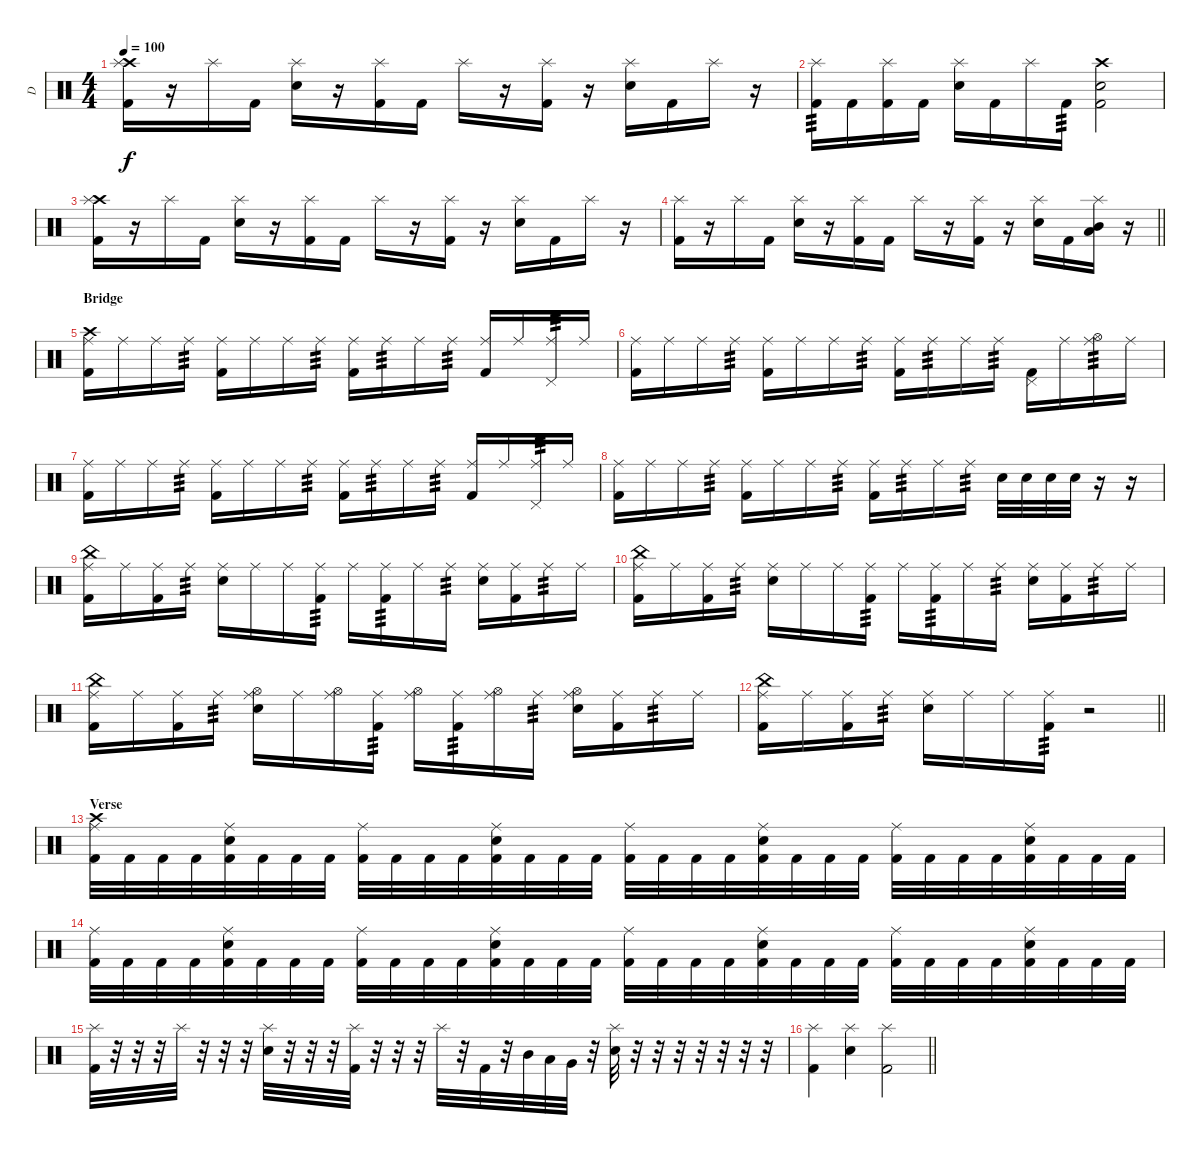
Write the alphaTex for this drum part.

\track ("D" "D") {instrument percussion}
\staff {score}
\articulation defaults
\ts (4 4)
\tempo 100
\clef neutral
\ks c
("Crash high (hit)" "Kick (hit) 2" "Splash (hit)").16{dy f} r.16 "Splash (hit)".16 "Kick (hit) 2".16 ("Electric Snare (hit)" "Splash (hit)").16 r.16 ("Kick (hit) 2" "Splash (hit)").16 "Kick (hit) 2".16 "Splash (hit)".16 r.16 ("Kick (hit) 2" "Splash (hit)").16 r.16 ("Electric Snare (hit)" "Splash (hit)").16 "Kick (hit) 2".16 "Splash (hit)".16 r.16 |
("Kick (hit) 2" "Splash (hit)").16{tp 3} "Kick (hit) 2".16 ("Kick (hit) 2" "Splash (hit)").16 "Kick (hit) 2".16 ("Electric Snare (hit)" "Splash (hit)").16 "Kick (hit) 2".16 "Splash (hit)".16 "Kick (hit) 2".16{tp 3} ("Crash high (hit)" "Electric Snare (hit)" "Kick (hit) 2").2 |
("Crash high (hit)" "Kick (hit) 2" "Splash (hit)").16 r.16 "Splash (hit)".16 "Kick (hit) 2".16 ("Electric Snare (hit)" "Splash (hit)").16 r.16 ("Kick (hit) 2" "Splash (hit)").16 "Kick (hit) 2".16 "Splash (hit)".16 r.16 ("Kick (hit) 2" "Splash (hit)").16 r.16 ("Electric Snare (hit)" "Splash (hit)").16 "Kick (hit) 2".16 "Splash (hit)".16 r.16 |
\barLineRight lightlight
("Kick (hit) 2" "Splash (hit)").16 r.16 "Splash (hit)".16 "Kick (hit) 2".16 ("Electric Snare (hit)" "Splash (hit)").16 r.16 ("Kick (hit) 2" "Splash (hit)").16 "Kick (hit) 2".16 "Splash (hit)".16 r.16 ("Kick (hit) 2" "Splash (hit)").16 r.16 ("Electric Snare (hit)" "Splash (hit)").16 "Kick (hit) 2".16 ("Low Tom (hit)" "Mid Tom (hit)" "Splash (hit)").16 r.16 |
\section ("" "Bridge")
("Crash high (hit)" "Kick (hit) 2" "Ride (middle)").16 "Ride (middle)".16 "Ride (middle)".16 "Ride (middle)".16{tp 3} ("Kick (hit) 2" "Ride (middle)").16 "Ride (middle)".16 "Ride (middle)".16 "Ride (middle)".16{tp 3} ("Kick (hit) 2" "Ride (middle)").16 "Ride (middle)".16{tp 3} "Ride (middle)".16 "Ride (middle)".16{tp 3} ("Kick (hit) 2" "Ride (middle)").16 "Ride (middle)".16 ("Pedal Hi-Hat (hit)" "Ride (middle)").16{tp 3} "Ride (middle)".16 |
("Kick (hit) 2" "Ride (middle)").16 "Ride (middle)".16 "Ride (middle)".16 "Ride (middle)".16{tp 3} ("Kick (hit) 2" "Ride (middle)").16 "Ride (middle)".16 "Ride (middle)".16 "Ride (middle)".16{tp 3} ("Kick (hit) 2" "Ride (middle)").16 "Ride (middle)".16{tp 3} "Ride (middle)".16 "Ride (middle)".16{tp 3} ("Kick (hit) 2" "Pedal Hi-Hat (hit)").16 "Ride (middle)".16 ("Hi-Hat (open)" "Ride (middle)").16{tp 3} "Ride (middle)".16 |
("Kick (hit) 2" "Ride (middle)").16 "Ride (middle)".16 "Ride (middle)".16 "Ride (middle)".16{tp 3} ("Kick (hit) 2" "Ride (middle)").16 "Ride (middle)".16 "Ride (middle)".16 "Ride (middle)".16{tp 3} ("Kick (hit) 2" "Ride (middle)").16 "Ride (middle)".16{tp 3} "Ride (middle)".16 "Ride (middle)".16{tp 3} ("Kick (hit) 2" "Ride (middle)").16 "Ride (middle)".16 ("Pedal Hi-Hat (hit)" "Ride (middle)").16{tp 3} "Ride (middle)".16 |
("Kick (hit) 2" "Ride (middle)").16 "Ride (middle)".16 "Ride (middle)".16 "Ride (middle)".16{tp 3} ("Kick (hit) 2" "Ride (middle)").16 "Ride (middle)".16 "Ride (middle)".16 "Ride (middle)".16{tp 3} ("Kick (hit) 2" "Ride (middle)").16 "Ride (middle)".16{tp 3} "Ride (middle)".16 "Ride (middle)".16{tp 3} "Electric Snare (hit)".32 "Electric Snare (hit)".32 "Electric Snare (hit)".32 "Electric Snare (hit)".32 r.16 r.16 |
("China (hit)" "Kick (hit) 2" "Ride (middle)").16 "Ride (middle)".16 ("Kick (hit) 2" "Ride (middle)").16 "Ride (middle)".16{tp 3} ("Electric Snare (hit)" "Ride (middle)").16 "Ride (middle)".16 "Ride (middle)".16 ("Kick (hit) 2" "Ride (middle)").16{tp 3} "Ride (middle)".16 ("Kick (hit) 2" "Ride (middle)").16{tp 3} "Ride (middle)".16 "Ride (middle)".16{tp 3} ("Electric Snare (hit)" "Ride (middle)").16 ("Kick (hit) 2" "Ride (middle)").16 "Ride (middle)".16{tp 3} "Ride (middle)".16 |
("China (hit)" "Kick (hit) 2" "Ride (middle)").16 "Ride (middle)".16 ("Kick (hit) 2" "Ride (middle)").16 "Ride (middle)".16{tp 3} ("Electric Snare (hit)" "Ride (middle)").16 "Ride (middle)".16 "Ride (middle)".16 ("Kick (hit) 2" "Ride (middle)").16{tp 3} "Ride (middle)".16 ("Kick (hit) 2" "Ride (middle)").16{tp 3} "Ride (middle)".16 "Ride (middle)".16{tp 3} ("Electric Snare (hit)" "Ride (middle)").16 ("Kick (hit) 2" "Ride (middle)").16 "Ride (middle)".16{tp 3} "Ride (middle)".16 |
("China (hit)" "Kick (hit) 2" "Ride (middle)").16 "Ride (middle)".16 ("Kick (hit) 2" "Ride (middle)").16 "Ride (middle)".16{tp 3} ("Electric Snare (hit)" "Ride (middle)" "Hi-Hat (open)").16 "Ride (middle)".16 ("Ride (middle)" "Hi-Hat (open)").16 ("Kick (hit) 2" "Ride (middle)").16{tp 3} ("Ride (middle)" "Hi-Hat (open)").16 ("Kick (hit) 2" "Ride (middle)").16{tp 3} ("Ride (middle)" "Hi-Hat (open)").16 "Ride (middle)".16{tp 3} ("Electric Snare (hit)" "Ride (middle)" "Hi-Hat (open)").16 ("Kick (hit) 2" "Ride (middle)").16 "Ride (middle)".16{tp 3} "Ride (middle)".16 |
\barLineRight lightlight
("China (hit)" "Kick (hit) 2" "Ride (middle)").16 "Ride (middle)".16 ("Kick (hit) 2" "Ride (middle)").16 "Ride (middle)".16{tp 3} ("Electric Snare (hit)" "Ride (middle)").16 "Ride (middle)".16 "Ride (middle)".16 ("Kick (hit) 2" "Ride (middle)").16{tp 3} r.2 |
\section ("" "Verse")
("Crash high (hit)" "Kick (hit) 2" "Ride (middle)").32 "Kick (hit) 2".32 "Kick (hit) 2".32 "Kick (hit) 2".32 ("Electric Snare (hit)" "Kick (hit) 2" "Ride (middle)").32 "Kick (hit) 2".32 "Kick (hit) 2".32 "Kick (hit) 2".32 ("Kick (hit) 2" "Ride (middle)").32 "Kick (hit) 2".32 "Kick (hit) 2".32 "Kick (hit) 2".32 ("Electric Snare (hit)" "Kick (hit) 2" "Ride (middle)").32 "Kick (hit) 2".32 "Kick (hit) 2".32 "Kick (hit) 2".32 ("Kick (hit) 2" "Ride (middle)").32 "Kick (hit) 2".32 "Kick (hit) 2".32 "Kick (hit) 2".32 ("Electric Snare (hit)" "Kick (hit) 2" "Ride (middle)").32 "Kick (hit) 2".32 "Kick (hit) 2".32 "Kick (hit) 2".32 ("Kick (hit) 2" "Ride (middle)").32 "Kick (hit) 2".32 "Kick (hit) 2".32 "Kick (hit) 2".32 ("Electric Snare (hit)" "Kick (hit) 2" "Ride (middle)").32 "Kick (hit) 2".32 "Kick (hit) 2".32 "Kick (hit) 2".32 |
("Kick (hit) 2" "Ride (middle)").32 "Kick (hit) 2".32 "Kick (hit) 2".32 "Kick (hit) 2".32 ("Electric Snare (hit)" "Kick (hit) 2" "Ride (middle)").32 "Kick (hit) 2".32 "Kick (hit) 2".32 "Kick (hit) 2".32 ("Kick (hit) 2" "Ride (middle)").32 "Kick (hit) 2".32 "Kick (hit) 2".32 "Kick (hit) 2".32 ("Electric Snare (hit)" "Kick (hit) 2" "Ride (middle)").32 "Kick (hit) 2".32 "Kick (hit) 2".32 "Kick (hit) 2".32 ("Kick (hit) 2" "Ride (middle)").32 "Kick (hit) 2".32 "Kick (hit) 2".32 "Kick (hit) 2".32 ("Electric Snare (hit)" "Kick (hit) 2" "Ride (middle)").32 "Kick (hit) 2".32 "Kick (hit) 2".32 "Kick (hit) 2".32 ("Kick (hit) 2" "Ride (middle)").32 "Kick (hit) 2".32 "Kick (hit) 2".32 "Kick (hit) 2".32 ("Electric Snare (hit)" "Kick (hit) 2" "Ride (middle)").32 "Kick (hit) 2".32 "Kick (hit) 2".32 "Kick (hit) 2".32 |
("Kick (hit) 2" "Splash (hit)").32 r.32 r.32 r.32 "Splash (hit)".32 r.32 r.32 r.32 ("Electric Snare (hit)" "Splash (hit)").32 r.32 r.32 r.32 ("Kick (hit) 2" "Splash (hit)").32 r.32 r.32 r.32 "Splash (hit)".32 r.32 "Kick (hit) 2".32 r.32 "Mid Tom (hit)".32 "Low Tom (hit)".32 "Very Low Tom (hit)".32 r.32 ("Electric Snare (hit)" "Splash (hit)").32 r.32 r.32 r.32 r.32 r.32 r.32 r.32 |
\barLineRight lightlight
("Kick (hit) 2" "Splash (hit)").4 ("Electric Snare (hit)" "Splash (hit)").4 ("Kick (hit) 2" "Splash (hit)").2
